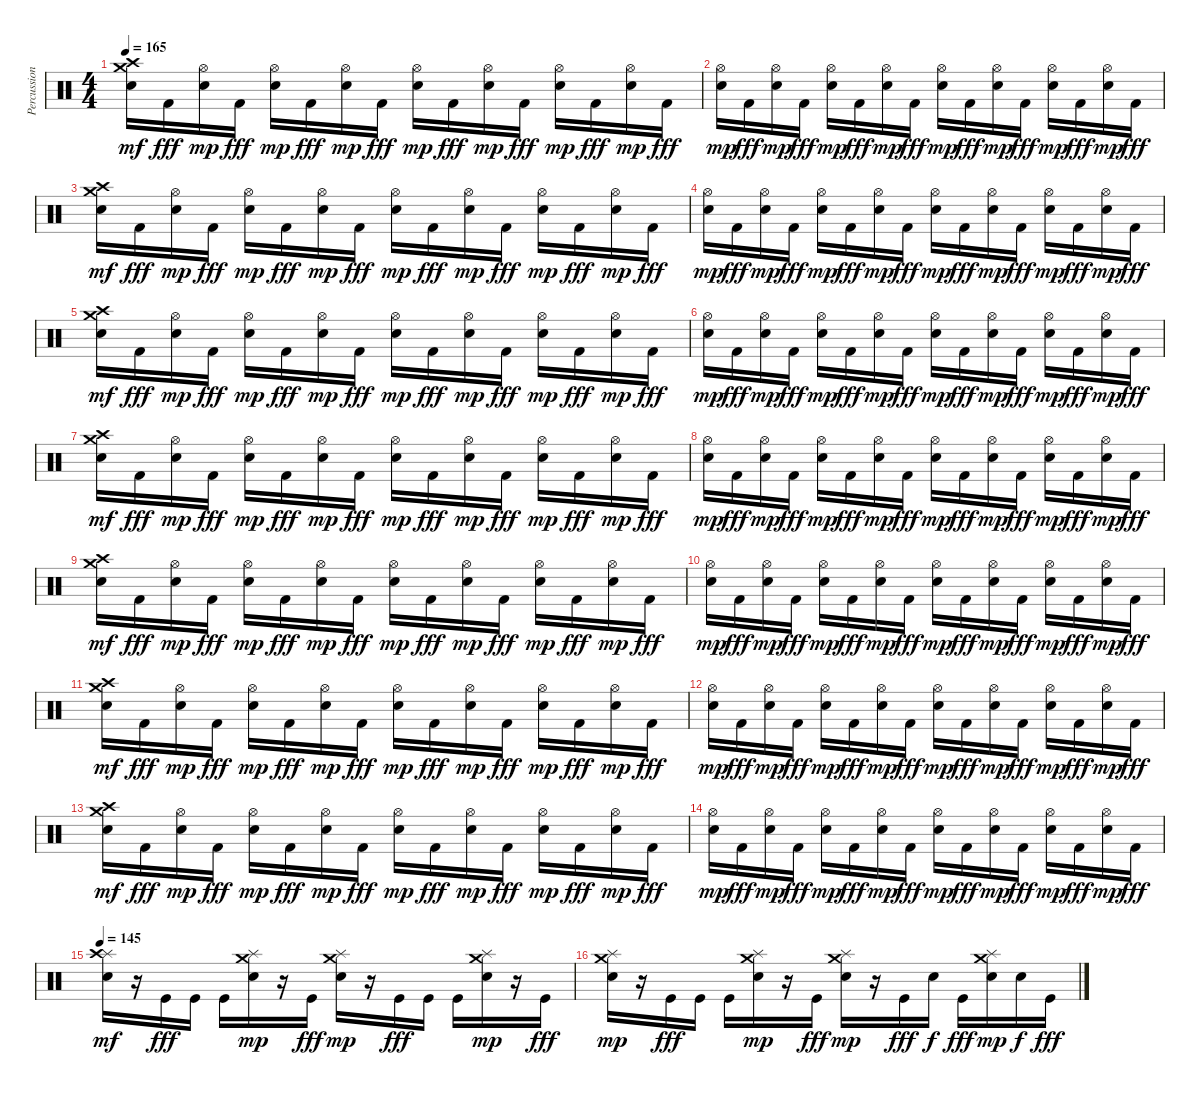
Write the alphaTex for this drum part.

\track ("Percussions" "Percussion") {instrument percussion}
\staff {score}
\articulation defaults
\ts (4 4)
\tempo 165
\clef neutral
\ks c
("Crash medium (hit)" "Crash high (hit)" "Electric Snare (hit)").16{dy mf} "Kick (hit) 2".16{dy fff} ("Hi-Hat (open)" "Electric Snare (hit)").16{dy mp} "Kick (hit) 2".16{dy fff} ("Hi-Hat (open)" "Electric Snare (hit)").16{dy mp} "Kick (hit) 2".16{dy fff} ("Hi-Hat (open)" "Electric Snare (hit)").16{dy mp} "Kick (hit) 2".16{dy fff} ("Hi-Hat (open)" "Electric Snare (hit)").16{dy mp} "Kick (hit) 2".16{dy fff} ("Hi-Hat (open)" "Electric Snare (hit)").16{dy mp} "Kick (hit) 2".16{dy fff} ("Hi-Hat (open)" "Electric Snare (hit)").16{dy mp} "Kick (hit) 2".16{dy fff} ("Hi-Hat (open)" "Electric Snare (hit)").16{dy mp} "Kick (hit) 2".16{dy fff} |
("Hi-Hat (open)" "Electric Snare (hit)").16{dy mp} "Kick (hit) 2".16{dy fff} ("Hi-Hat (open)" "Electric Snare (hit)").16{dy mp} "Kick (hit) 2".16{dy fff} ("Hi-Hat (open)" "Electric Snare (hit)").16{dy mp} "Kick (hit) 2".16{dy fff} ("Hi-Hat (open)" "Electric Snare (hit)").16{dy mp} "Kick (hit) 2".16{dy fff} ("Hi-Hat (open)" "Electric Snare (hit)").16{dy mp} "Kick (hit) 2".16{dy fff} ("Hi-Hat (open)" "Electric Snare (hit)").16{dy mp} "Kick (hit) 2".16{dy fff} ("Hi-Hat (open)" "Electric Snare (hit)").16{dy mp} "Kick (hit) 2".16{dy fff} ("Hi-Hat (open)" "Electric Snare (hit)").16{dy mp} "Kick (hit) 2".16{dy fff} |
("Crash medium (hit)" "Crash high (hit)" "Electric Snare (hit)").16{dy mf} "Kick (hit) 2".16{dy fff} ("Hi-Hat (open)" "Electric Snare (hit)").16{dy mp} "Kick (hit) 2".16{dy fff} ("Hi-Hat (open)" "Electric Snare (hit)").16{dy mp} "Kick (hit) 2".16{dy fff} ("Hi-Hat (open)" "Electric Snare (hit)").16{dy mp} "Kick (hit) 2".16{dy fff} ("Hi-Hat (open)" "Electric Snare (hit)").16{dy mp} "Kick (hit) 2".16{dy fff} ("Hi-Hat (open)" "Electric Snare (hit)").16{dy mp} "Kick (hit) 2".16{dy fff} ("Hi-Hat (open)" "Electric Snare (hit)").16{dy mp} "Kick (hit) 2".16{dy fff} ("Hi-Hat (open)" "Electric Snare (hit)").16{dy mp} "Kick (hit) 2".16{dy fff} |
("Hi-Hat (open)" "Electric Snare (hit)").16{dy mp} "Kick (hit) 2".16{dy fff} ("Hi-Hat (open)" "Electric Snare (hit)").16{dy mp} "Kick (hit) 2".16{dy fff} ("Hi-Hat (open)" "Electric Snare (hit)").16{dy mp} "Kick (hit) 2".16{dy fff} ("Hi-Hat (open)" "Electric Snare (hit)").16{dy mp} "Kick (hit) 2".16{dy fff} ("Hi-Hat (open)" "Electric Snare (hit)").16{dy mp} "Kick (hit) 2".16{dy fff} ("Hi-Hat (open)" "Electric Snare (hit)").16{dy mp} "Kick (hit) 2".16{dy fff} ("Hi-Hat (open)" "Electric Snare (hit)").16{dy mp} "Kick (hit) 2".16{dy fff} ("Hi-Hat (open)" "Electric Snare (hit)").16{dy mp} "Kick (hit) 2".16{dy fff} |
("Crash medium (hit)" "Crash high (hit)" "Electric Snare (hit)").16{dy mf} "Kick (hit) 2".16{dy fff} ("Hi-Hat (open)" "Electric Snare (hit)").16{dy mp} "Kick (hit) 2".16{dy fff} ("Hi-Hat (open)" "Electric Snare (hit)").16{dy mp} "Kick (hit) 2".16{dy fff} ("Hi-Hat (open)" "Electric Snare (hit)").16{dy mp} "Kick (hit) 2".16{dy fff} ("Hi-Hat (open)" "Electric Snare (hit)").16{dy mp} "Kick (hit) 2".16{dy fff} ("Hi-Hat (open)" "Electric Snare (hit)").16{dy mp} "Kick (hit) 2".16{dy fff} ("Hi-Hat (open)" "Electric Snare (hit)").16{dy mp} "Kick (hit) 2".16{dy fff} ("Hi-Hat (open)" "Electric Snare (hit)").16{dy mp} "Kick (hit) 2".16{dy fff} |
("Hi-Hat (open)" "Electric Snare (hit)").16{dy mp} "Kick (hit) 2".16{dy fff} ("Hi-Hat (open)" "Electric Snare (hit)").16{dy mp} "Kick (hit) 2".16{dy fff} ("Hi-Hat (open)" "Electric Snare (hit)").16{dy mp} "Kick (hit) 2".16{dy fff} ("Hi-Hat (open)" "Electric Snare (hit)").16{dy mp} "Kick (hit) 2".16{dy fff} ("Hi-Hat (open)" "Electric Snare (hit)").16{dy mp} "Kick (hit) 2".16{dy fff} ("Hi-Hat (open)" "Electric Snare (hit)").16{dy mp} "Kick (hit) 2".16{dy fff} ("Hi-Hat (open)" "Electric Snare (hit)").16{dy mp} "Kick (hit) 2".16{dy fff} ("Hi-Hat (open)" "Electric Snare (hit)").16{dy mp} "Kick (hit) 2".16{dy fff} |
("Crash medium (hit)" "Crash high (hit)" "Electric Snare (hit)").16{dy mf} "Kick (hit) 2".16{dy fff} ("Hi-Hat (open)" "Electric Snare (hit)").16{dy mp} "Kick (hit) 2".16{dy fff} ("Hi-Hat (open)" "Electric Snare (hit)").16{dy mp} "Kick (hit) 2".16{dy fff} ("Hi-Hat (open)" "Electric Snare (hit)").16{dy mp} "Kick (hit) 2".16{dy fff} ("Hi-Hat (open)" "Electric Snare (hit)").16{dy mp} "Kick (hit) 2".16{dy fff} ("Hi-Hat (open)" "Electric Snare (hit)").16{dy mp} "Kick (hit) 2".16{dy fff} ("Hi-Hat (open)" "Electric Snare (hit)").16{dy mp} "Kick (hit) 2".16{dy fff} ("Hi-Hat (open)" "Electric Snare (hit)").16{dy mp} "Kick (hit) 2".16{dy fff} |
("Hi-Hat (open)" "Electric Snare (hit)").16{dy mp} "Kick (hit) 2".16{dy fff} ("Hi-Hat (open)" "Electric Snare (hit)").16{dy mp} "Kick (hit) 2".16{dy fff} ("Hi-Hat (open)" "Electric Snare (hit)").16{dy mp} "Kick (hit) 2".16{dy fff} ("Hi-Hat (open)" "Electric Snare (hit)").16{dy mp} "Kick (hit) 2".16{dy fff} ("Hi-Hat (open)" "Electric Snare (hit)").16{dy mp} "Kick (hit) 2".16{dy fff} ("Hi-Hat (open)" "Electric Snare (hit)").16{dy mp} "Kick (hit) 2".16{dy fff} ("Hi-Hat (open)" "Electric Snare (hit)").16{dy mp} "Kick (hit) 2".16{dy fff} ("Hi-Hat (open)" "Electric Snare (hit)").16{dy mp} "Kick (hit) 2".16{dy fff} |
("Crash medium (hit)" "Crash high (hit)" "Electric Snare (hit)").16{dy mf} "Kick (hit) 2".16{dy fff} ("Hi-Hat (open)" "Electric Snare (hit)").16{dy mp} "Kick (hit) 2".16{dy fff} ("Hi-Hat (open)" "Electric Snare (hit)").16{dy mp} "Kick (hit) 2".16{dy fff} ("Hi-Hat (open)" "Electric Snare (hit)").16{dy mp} "Kick (hit) 2".16{dy fff} ("Hi-Hat (open)" "Electric Snare (hit)").16{dy mp} "Kick (hit) 2".16{dy fff} ("Hi-Hat (open)" "Electric Snare (hit)").16{dy mp} "Kick (hit) 2".16{dy fff} ("Hi-Hat (open)" "Electric Snare (hit)").16{dy mp} "Kick (hit) 2".16{dy fff} ("Hi-Hat (open)" "Electric Snare (hit)").16{dy mp} "Kick (hit) 2".16{dy fff} |
("Hi-Hat (open)" "Electric Snare (hit)").16{dy mp} "Kick (hit) 2".16{dy fff} ("Hi-Hat (open)" "Electric Snare (hit)").16{dy mp} "Kick (hit) 2".16{dy fff} ("Hi-Hat (open)" "Electric Snare (hit)").16{dy mp} "Kick (hit) 2".16{dy fff} ("Hi-Hat (open)" "Electric Snare (hit)").16{dy mp} "Kick (hit) 2".16{dy fff} ("Hi-Hat (open)" "Electric Snare (hit)").16{dy mp} "Kick (hit) 2".16{dy fff} ("Hi-Hat (open)" "Electric Snare (hit)").16{dy mp} "Kick (hit) 2".16{dy fff} ("Hi-Hat (open)" "Electric Snare (hit)").16{dy mp} "Kick (hit) 2".16{dy fff} ("Hi-Hat (open)" "Electric Snare (hit)").16{dy mp} "Kick (hit) 2".16{dy fff} |
("Crash medium (hit)" "Crash high (hit)" "Electric Snare (hit)").16{dy mf} "Kick (hit) 2".16{dy fff} ("Hi-Hat (open)" "Electric Snare (hit)").16{dy mp} "Kick (hit) 2".16{dy fff} ("Hi-Hat (open)" "Electric Snare (hit)").16{dy mp} "Kick (hit) 2".16{dy fff} ("Hi-Hat (open)" "Electric Snare (hit)").16{dy mp} "Kick (hit) 2".16{dy fff} ("Hi-Hat (open)" "Electric Snare (hit)").16{dy mp} "Kick (hit) 2".16{dy fff} ("Hi-Hat (open)" "Electric Snare (hit)").16{dy mp} "Kick (hit) 2".16{dy fff} ("Hi-Hat (open)" "Electric Snare (hit)").16{dy mp} "Kick (hit) 2".16{dy fff} ("Hi-Hat (open)" "Electric Snare (hit)").16{dy mp} "Kick (hit) 2".16{dy fff} |
("Hi-Hat (open)" "Electric Snare (hit)").16{dy mp} "Kick (hit) 2".16{dy fff} ("Hi-Hat (open)" "Electric Snare (hit)").16{dy mp} "Kick (hit) 2".16{dy fff} ("Hi-Hat (open)" "Electric Snare (hit)").16{dy mp} "Kick (hit) 2".16{dy fff} ("Hi-Hat (open)" "Electric Snare (hit)").16{dy mp} "Kick (hit) 2".16{dy fff} ("Hi-Hat (open)" "Electric Snare (hit)").16{dy mp} "Kick (hit) 2".16{dy fff} ("Hi-Hat (open)" "Electric Snare (hit)").16{dy mp} "Kick (hit) 2".16{dy fff} ("Hi-Hat (open)" "Electric Snare (hit)").16{dy mp} "Kick (hit) 2".16{dy fff} ("Hi-Hat (open)" "Electric Snare (hit)").16{dy mp} "Kick (hit) 2".16{dy fff} |
("Crash medium (hit)" "Crash high (hit)" "Electric Snare (hit)").16{dy mf} "Kick (hit) 2".16{dy fff} ("Hi-Hat (open)" "Electric Snare (hit)").16{dy mp} "Kick (hit) 2".16{dy fff} ("Hi-Hat (open)" "Electric Snare (hit)").16{dy mp} "Kick (hit) 2".16{dy fff} ("Hi-Hat (open)" "Electric Snare (hit)").16{dy mp} "Kick (hit) 2".16{dy fff} ("Hi-Hat (open)" "Electric Snare (hit)").16{dy mp} "Kick (hit) 2".16{dy fff} ("Hi-Hat (open)" "Electric Snare (hit)").16{dy mp} "Kick (hit) 2".16{dy fff} ("Hi-Hat (open)" "Electric Snare (hit)").16{dy mp} "Kick (hit) 2".16{dy fff} ("Hi-Hat (open)" "Electric Snare (hit)").16{dy mp} "Kick (hit) 2".16{dy fff} |
("Hi-Hat (open)" "Electric Snare (hit)").16{dy mp} "Kick (hit) 2".16{dy fff} ("Hi-Hat (open)" "Electric Snare (hit)").16{dy mp} "Kick (hit) 2".16{dy fff} ("Hi-Hat (open)" "Electric Snare (hit)").16{dy mp} "Kick (hit) 2".16{dy fff} ("Hi-Hat (open)" "Electric Snare (hit)").16{dy mp} "Kick (hit) 2".16{dy fff} ("Hi-Hat (open)" "Electric Snare (hit)").16{dy mp} "Kick (hit) 2".16{dy fff} ("Hi-Hat (open)" "Electric Snare (hit)").16{dy mp} "Kick (hit) 2".16{dy fff} ("Hi-Hat (open)" "Electric Snare (hit)").16{dy mp} "Kick (hit) 2".16{dy fff} ("Hi-Hat (open)" "Electric Snare (hit)").16{dy mp} "Kick (hit) 2".16{dy fff} |
\tempo 145
("Splash (hit)" "Crash high (hit)" "Electric Snare (hit)").16{dy mf} r.16 "Kick (hit)".16{dy fff} "Kick (hit)".16 "Kick (hit)".16 ("Splash (hit)" "Crash medium (hit)" "Electric Snare (hit)").16{dy mp} r.16 "Kick (hit)".16{dy fff} ("Splash (hit)" "Crash medium (hit)" "Electric Snare (hit)").16{dy mp} r.16 "Kick (hit)".16{dy fff} "Kick (hit)".16 "Kick (hit)".16 ("Splash (hit)" "Crash medium (hit)" "Electric Snare (hit)").16{dy mp} r.16 "Kick (hit)".16{dy fff} |
("Splash (hit)" "Crash medium (hit)" "Electric Snare (hit)").16{dy mp} r.16 "Kick (hit)".16{dy fff} "Kick (hit)".16 "Kick (hit)".16 ("Splash (hit)" "Crash medium (hit)" "Electric Snare (hit)").16{dy mp} r.16 "Kick (hit)".16{dy fff} ("Splash (hit)" "Crash medium (hit)" "Electric Snare (hit)").16{dy mp} r.16 "Kick (hit)".16{dy fff} "Electric Snare (hit)".16{dy f} "Kick (hit)".16{dy fff} ("Splash (hit)" "Crash medium (hit)" "Electric Snare (hit)").16{dy mp} "Electric Snare (hit)".16{dy f} "Kick (hit)".16{dy fff}
